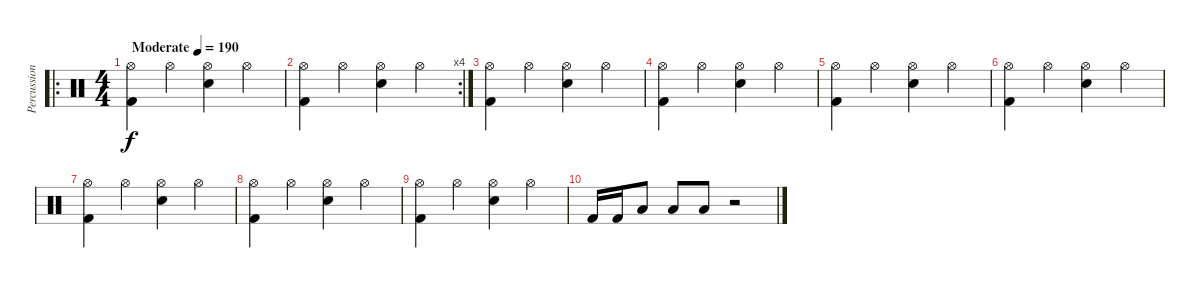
\track ("Percussion" "Percussion") {instrument percussion}
\staff {score}
\articulation defaults
\ro
\ts (4 4)
\tempo (190 "Moderate")
\clef neutral
\ks c
("Hi-Hat (open)" "Kick (hit) 2").4{dy f} "Hi-Hat (open)".4 ("Hi-Hat (open)" "Electric Snare (hit)").4 "Hi-Hat (open)".4 |
\rc 4
("Hi-Hat (open)" "Kick (hit) 2").4 "Hi-Hat (open)".4 ("Hi-Hat (open)" "Electric Snare (hit)").4 "Hi-Hat (open)".4 |
("Hi-Hat (open)" "Kick (hit) 2").4 "Hi-Hat (open)".4 ("Hi-Hat (open)" "Electric Snare (hit)").4 "Hi-Hat (open)".4 |
("Hi-Hat (open)" "Kick (hit) 2").4 "Hi-Hat (open)".4 ("Hi-Hat (open)" "Electric Snare (hit)").4 "Hi-Hat (open)".4 |
("Hi-Hat (open)" "Kick (hit) 2").4 "Hi-Hat (open)".4 ("Hi-Hat (open)" "Electric Snare (hit)").4 "Hi-Hat (open)".4 |
("Hi-Hat (open)" "Kick (hit) 2").4 "Hi-Hat (open)".4 ("Hi-Hat (open)" "Electric Snare (hit)").4 "Hi-Hat (open)".4 |
("Hi-Hat (open)" "Kick (hit) 2").4 "Hi-Hat (open)".4 ("Hi-Hat (open)" "Electric Snare (hit)").4 "Hi-Hat (open)".4 |
("Hi-Hat (open)" "Kick (hit) 2").4 "Hi-Hat (open)".4 ("Hi-Hat (open)" "Electric Snare (hit)").4 "Hi-Hat (open)".4 |
("Hi-Hat (open)" "Kick (hit) 2").4 "Hi-Hat (open)".4 ("Hi-Hat (open)" "Electric Snare (hit)").4 "Hi-Hat (open)".4 |
"Kick (hit) 2".16 "Kick (hit) 2".16 "Low Tom (hit)".8 "Low Floor Tom (hit)".8 "Low Floor Tom (hit)".8 r.2
